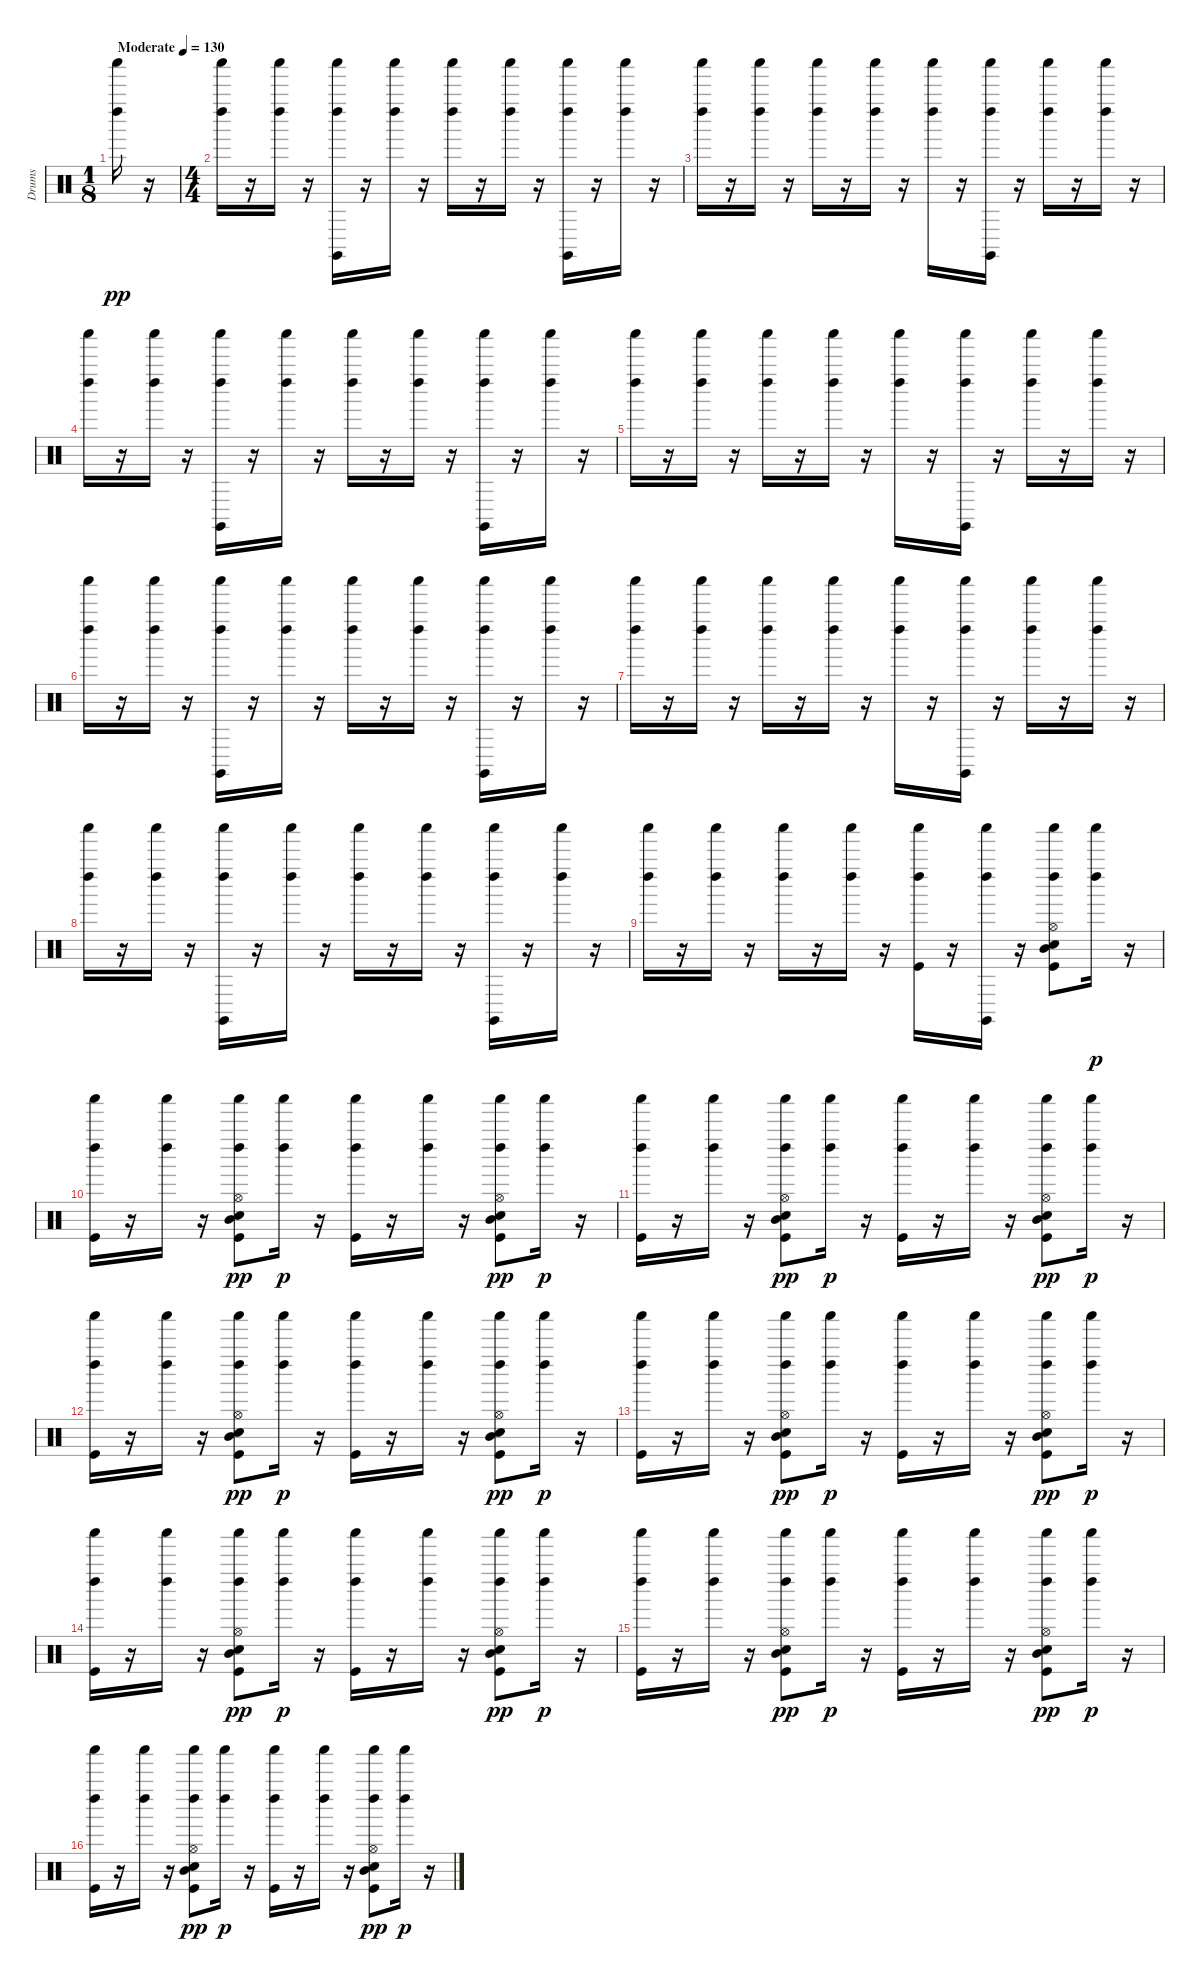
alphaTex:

\track ("Drums" "Drums") {instrument percussion}
\staff {score}
\articulation defaults
\ts (1 8)
\tempo (130 "Moderate")
\clef neutral
\ks c
("Shaker (hit)" "Left Maraca (hit)").16{dy pp} r.16 |
\ts (4 4)
("Shaker (hit)" "Left Maraca (hit)").16 r.16 ("Shaker (hit)" "Left Maraca (hit)").16 r.16 ("Claves (hit)" "Shaker (hit)" "Left Maraca (hit)").16 r.16 ("Shaker (hit)" "Left Maraca (hit)").16 r.16 ("Shaker (hit)" "Left Maraca (hit)").16 r.16 ("Shaker (hit)" "Left Maraca (hit)").16 r.16 ("Claves (hit)" "Shaker (hit)" "Left Maraca (hit)").16 r.16 ("Shaker (hit)" "Left Maraca (hit)").16 r.16 |
("Shaker (hit)" "Left Maraca (hit)").16 r.16 ("Shaker (hit)" "Left Maraca (hit)").16 r.16 ("Shaker (hit)" "Left Maraca (hit)").16 r.16 ("Shaker (hit)" "Left Maraca (hit)").16 r.16 ("Shaker (hit)" "Left Maraca (hit)").16 r.16 ("Claves (hit)" "Shaker (hit)" "Left Maraca (hit)").16 r.16 ("Shaker (hit)" "Left Maraca (hit)").16 r.16 ("Shaker (hit)" "Left Maraca (hit)").16 r.16 |
("Shaker (hit)" "Left Maraca (hit)").16 r.16 ("Shaker (hit)" "Left Maraca (hit)").16 r.16 ("Claves (hit)" "Shaker (hit)" "Left Maraca (hit)").16 r.16 ("Shaker (hit)" "Left Maraca (hit)").16 r.16 ("Shaker (hit)" "Left Maraca (hit)").16 r.16 ("Shaker (hit)" "Left Maraca (hit)").16 r.16 ("Claves (hit)" "Shaker (hit)" "Left Maraca (hit)").16 r.16 ("Shaker (hit)" "Left Maraca (hit)").16 r.16 |
("Shaker (hit)" "Left Maraca (hit)").16 r.16 ("Shaker (hit)" "Left Maraca (hit)").16 r.16 ("Shaker (hit)" "Left Maraca (hit)").16 r.16 ("Shaker (hit)" "Left Maraca (hit)").16 r.16 ("Shaker (hit)" "Left Maraca (hit)").16 r.16 ("Claves (hit)" "Shaker (hit)" "Left Maraca (hit)").16 r.16 ("Shaker (hit)" "Left Maraca (hit)").16 r.16 ("Shaker (hit)" "Left Maraca (hit)").16 r.16 |
("Shaker (hit)" "Left Maraca (hit)").16 r.16 ("Shaker (hit)" "Left Maraca (hit)").16 r.16 ("Claves (hit)" "Shaker (hit)" "Left Maraca (hit)").16 r.16 ("Shaker (hit)" "Left Maraca (hit)").16 r.16 ("Shaker (hit)" "Left Maraca (hit)").16 r.16 ("Shaker (hit)" "Left Maraca (hit)").16 r.16 ("Claves (hit)" "Shaker (hit)" "Left Maraca (hit)").16 r.16 ("Shaker (hit)" "Left Maraca (hit)").16 r.16 |
("Shaker (hit)" "Left Maraca (hit)").16 r.16 ("Shaker (hit)" "Left Maraca (hit)").16 r.16 ("Shaker (hit)" "Left Maraca (hit)").16 r.16 ("Shaker (hit)" "Left Maraca (hit)").16 r.16 ("Shaker (hit)" "Left Maraca (hit)").16 r.16 ("Claves (hit)" "Shaker (hit)" "Left Maraca (hit)").16 r.16 ("Shaker (hit)" "Left Maraca (hit)").16 r.16 ("Shaker (hit)" "Left Maraca (hit)").16 r.16 |
("Shaker (hit)" "Left Maraca (hit)").16 r.16 ("Shaker (hit)" "Left Maraca (hit)").16 r.16 ("Claves (hit)" "Shaker (hit)" "Left Maraca (hit)").16 r.16 ("Shaker (hit)" "Left Maraca (hit)").16 r.16 ("Shaker (hit)" "Left Maraca (hit)").16 r.16 ("Shaker (hit)" "Left Maraca (hit)").16 r.16 ("Claves (hit)" "Shaker (hit)" "Left Maraca (hit)").16 r.16 ("Shaker (hit)" "Left Maraca (hit)").16 r.16 |
("Shaker (hit)" "Left Maraca (hit)").16 r.16 ("Shaker (hit)" "Left Maraca (hit)").16 r.16 ("Shaker (hit)" "Left Maraca (hit)").16 r.16 ("Shaker (hit)" "Left Maraca (hit)").16 r.16 ("Kick (hit)" "Shaker (hit)" "Left Maraca (hit)").16 r.16 ("Claves (hit)" "Left Maraca (hit)" "Shaker (hit)").16 r.16 ("Snare (hit) 2" "Kick (hit)" "Left Maraca (hit)" "Shaker (hit)" "Mid Tom (hit)" "Hi-Hat (open)").8 ("Left Maraca (hit)" "Shaker (hit)").16{dy p} r.16 |
("Kick (hit)" "Left Maraca (hit)" "Shaker (hit)").16 r.16 ("Shaker (hit)" "Left Maraca (hit)").16 r.16 ("Snare (hit) 2" "Kick (hit)" "Shaker (hit)" "Left Maraca (hit)" "Mid Tom (hit)" "Hi-Hat (open)").8{dy pp} ("Shaker (hit)" "Left Maraca (hit)").16{dy p} r.16 ("Kick (hit)" "Shaker (hit)" "Left Maraca (hit)").16 r.16 ("Shaker (hit)" "Left Maraca (hit)").16 r.16 ("Snare (hit) 2" "Kick (hit)" "Shaker (hit)" "Left Maraca (hit)" "Mid Tom (hit)" "Hi-Hat (open)").8{dy pp} ("Shaker (hit)" "Left Maraca (hit)").16{dy p} r.16 |
("Kick (hit)" "Shaker (hit)" "Left Maraca (hit)").16 r.16 ("Shaker (hit)" "Left Maraca (hit)").16 r.16 ("Snare (hit) 2" "Kick (hit)" "Shaker (hit)" "Left Maraca (hit)" "Mid Tom (hit)" "Hi-Hat (open)").8{dy pp} ("Shaker (hit)" "Left Maraca (hit)").16{dy p} r.16 ("Kick (hit)" "Shaker (hit)" "Left Maraca (hit)").16 r.16 ("Shaker (hit)" "Left Maraca (hit)").16 r.16 ("Snare (hit) 2" "Kick (hit)" "Shaker (hit)" "Left Maraca (hit)" "Mid Tom (hit)" "Hi-Hat (open)").8{dy pp} ("Shaker (hit)" "Left Maraca (hit)").16{dy p} r.16 |
("Kick (hit)" "Shaker (hit)" "Left Maraca (hit)").16 r.16 ("Shaker (hit)" "Left Maraca (hit)").16 r.16 ("Snare (hit) 2" "Kick (hit)" "Shaker (hit)" "Left Maraca (hit)" "Mid Tom (hit)" "Hi-Hat (open)").8{dy pp} ("Shaker (hit)" "Left Maraca (hit)").16{dy p} r.16 ("Kick (hit)" "Shaker (hit)" "Left Maraca (hit)").16 r.16 ("Shaker (hit)" "Left Maraca (hit)").16 r.16 ("Snare (hit) 2" "Kick (hit)" "Shaker (hit)" "Left Maraca (hit)" "Mid Tom (hit)" "Hi-Hat (open)").8{dy pp} ("Shaker (hit)" "Left Maraca (hit)").16{dy p} r.16 |
("Kick (hit)" "Shaker (hit)" "Left Maraca (hit)").16 r.16 ("Shaker (hit)" "Left Maraca (hit)").16 r.16 ("Snare (hit) 2" "Kick (hit)" "Shaker (hit)" "Left Maraca (hit)" "Mid Tom (hit)" "Hi-Hat (open)").8{dy pp} ("Shaker (hit)" "Left Maraca (hit)").16{dy p} r.16 ("Kick (hit)" "Shaker (hit)" "Left Maraca (hit)").16 r.16 ("Shaker (hit)" "Left Maraca (hit)").16 r.16 ("Snare (hit) 2" "Kick (hit)" "Shaker (hit)" "Left Maraca (hit)" "Mid Tom (hit)" "Hi-Hat (open)").8{dy pp} ("Shaker (hit)" "Left Maraca (hit)").16{dy p} r.16 |
("Kick (hit)" "Shaker (hit)" "Left Maraca (hit)").16 r.16 ("Shaker (hit)" "Left Maraca (hit)").16 r.16 ("Snare (hit) 2" "Kick (hit)" "Shaker (hit)" "Left Maraca (hit)" "Mid Tom (hit)" "Hi-Hat (open)").8{dy pp} ("Shaker (hit)" "Left Maraca (hit)").16{dy p} r.16 ("Kick (hit)" "Shaker (hit)" "Left Maraca (hit)").16 r.16 ("Shaker (hit)" "Left Maraca (hit)").16 r.16 ("Snare (hit) 2" "Kick (hit)" "Shaker (hit)" "Left Maraca (hit)" "Mid Tom (hit)" "Hi-Hat (open)").8{dy pp} ("Shaker (hit)" "Left Maraca (hit)").16{dy p} r.16 |
("Kick (hit)" "Shaker (hit)" "Left Maraca (hit)").16 r.16 ("Shaker (hit)" "Left Maraca (hit)").16 r.16 ("Snare (hit) 2" "Kick (hit)" "Shaker (hit)" "Left Maraca (hit)" "Mid Tom (hit)" "Hi-Hat (open)").8{dy pp} ("Shaker (hit)" "Left Maraca (hit)").16{dy p} r.16 ("Kick (hit)" "Shaker (hit)" "Left Maraca (hit)").16 r.16 ("Shaker (hit)" "Left Maraca (hit)").16 r.16 ("Snare (hit) 2" "Kick (hit)" "Shaker (hit)" "Left Maraca (hit)" "Mid Tom (hit)" "Hi-Hat (open)").8{dy pp} ("Shaker (hit)" "Left Maraca (hit)").16{dy p} r.16 |
("Kick (hit)" "Shaker (hit)" "Left Maraca (hit)").16 r.16 ("Shaker (hit)" "Left Maraca (hit)").16 r.16 ("Snare (hit) 2" "Kick (hit)" "Shaker (hit)" "Left Maraca (hit)" "Mid Tom (hit)" "Hi-Hat (open)").8{dy pp} ("Shaker (hit)" "Left Maraca (hit)").16{dy p} r.16 ("Kick (hit)" "Shaker (hit)" "Left Maraca (hit)").16 r.16 ("Shaker (hit)" "Left Maraca (hit)").16 r.16 ("Snare (hit) 2" "Kick (hit)" "Shaker (hit)" "Left Maraca (hit)" "Mid Tom (hit)" "Hi-Hat (open)").8{dy pp} ("Shaker (hit)" "Left Maraca (hit)").16{dy p} r.16
